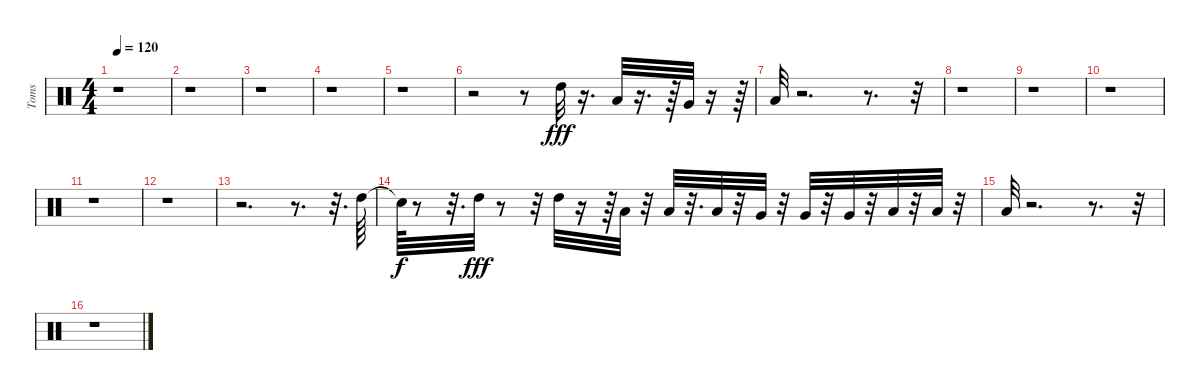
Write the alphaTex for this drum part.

\track ("Toms" "Toms") {instrument percussion}
\staff {score}
\articulation defaults
\ts (4 4)
\tempo 120
\clef neutral
\ks c
r.1{dy fff} |
r.1 |
r.1 |
r.1 |
r.1 |
r.2 r.8 "High Tom (hit)".32 r.16{d} "Low Tom (hit)".32 r.16{d} r.64 "Very Low Tom (hit)".32 r.16 r.64 |
"Low Floor Tom (hit)".32 r.2{d} r.8{d} r.32 |
r.1 |
r.1 |
r.1 |
r.1 |
r.1 |
r.2{d} r.8{d} r.32{d} "High Tom (hit)".64 |
"Snare (hit)"{t}.64{dy f} r.8 r.32{d} "High Tom (hit)".32{dy fff} r.8 r.32 "High Tom (hit)".32 r.16 r.64 "Low Tom (hit)".32 r.32 "Low Tom (hit)".32 r.32{d} "Low Tom (hit)".32 r.32 "Very Low Tom (hit)".32 r.32 "Very Low Tom (hit)".32 r.32 "Very Low Tom (hit)".32 r.32 "Low Floor Tom (hit)".32 r.32 "Low Floor Tom (hit)".32 r.32 |
"Low Floor Tom (hit)".32 r.2{d} r.8{d} r.32 |
r.1
